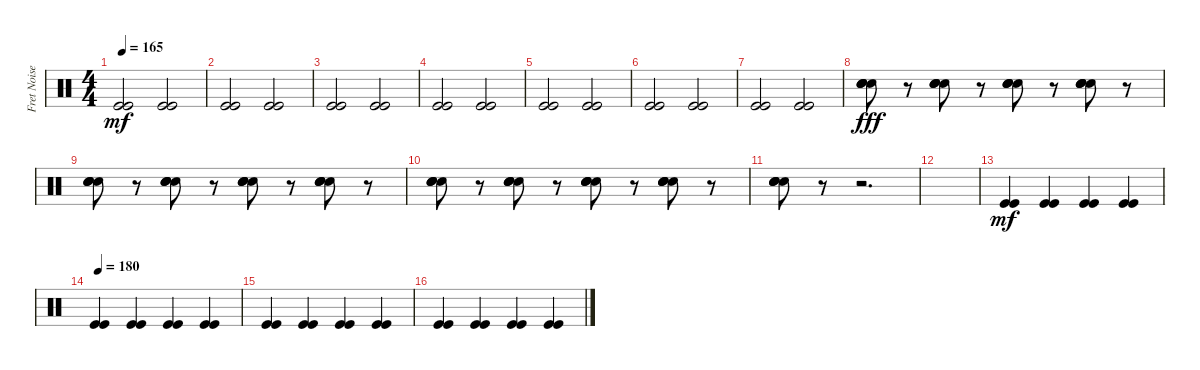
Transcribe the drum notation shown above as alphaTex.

\track ("Fret Noise / Percussion(corpus)" "Fret Noise") {instrument percussion}
\staff {score}
\articulation defaults
\ts (4 4)
\tempo 165
\clef neutral
\ks c
("Kick (hit)" "Kick (hit)").2{dy mf} ("Kick (hit)" "Kick (hit)").2 |
("Kick (hit)" "Kick (hit)").2 ("Kick (hit)" "Kick (hit)").2 |
("Kick (hit)" "Kick (hit)").2 ("Kick (hit)" "Kick (hit)").2 |
("Kick (hit)" "Kick (hit)").2 ("Kick (hit)" "Kick (hit)").2 |
("Kick (hit)" "Kick (hit)").2 ("Kick (hit)" "Kick (hit)").2 |
("Kick (hit)" "Kick (hit)").2 ("Kick (hit)" "Kick (hit)").2 |
("Kick (hit)" "Kick (hit)").2 ("Kick (hit)" "Kick (hit)").2 |
("Snare (hit) 2" "Snare (hit) 2" "Snare (hit) 2" "Snare (hit) 2").8{dy fff} r.8 ("Snare (hit) 2" "Snare (hit) 2" "Snare (hit) 2" "Snare (hit) 2").8 r.8 ("Snare (hit) 2" "Snare (hit) 2" "Snare (hit) 2" "Snare (hit) 2").8 r.8 ("Snare (hit) 2" "Snare (hit) 2" "Snare (hit) 2" "Snare (hit) 2").8 r.8 |
("Snare (hit) 2" "Snare (hit) 2" "Snare (hit) 2" "Snare (hit) 2").8 r.8 ("Snare (hit) 2" "Snare (hit) 2" "Snare (hit) 2" "Snare (hit) 2").8 r.8 ("Snare (hit) 2" "Snare (hit) 2" "Snare (hit) 2" "Snare (hit) 2").8 r.8 ("Snare (hit) 2" "Snare (hit) 2" "Snare (hit) 2" "Snare (hit) 2").8 r.8 |
("Snare (hit) 2" "Snare (hit) 2" "Snare (hit) 2" "Snare (hit) 2").8 r.8 ("Snare (hit) 2" "Snare (hit) 2" "Snare (hit) 2" "Snare (hit) 2").8 r.8 ("Snare (hit) 2" "Snare (hit) 2" "Snare (hit) 2" "Snare (hit) 2").8 r.8 ("Snare (hit) 2" "Snare (hit) 2" "Snare (hit) 2" "Snare (hit) 2").8 r.8 |
("Snare (hit) 2" "Snare (hit) 2" "Snare (hit) 2" "Snare (hit) 2").8 r.8 r.2{d} |
|
("Kick (hit)" "Kick (hit)").4{dy mf} ("Kick (hit)" "Kick (hit)").4 ("Kick (hit)" "Kick (hit)").4 ("Kick (hit)" "Kick (hit)").4 |
\tempo 180
("Kick (hit)" "Kick (hit)").4 ("Kick (hit)" "Kick (hit)").4 ("Kick (hit)" "Kick (hit)").4 ("Kick (hit)" "Kick (hit)").4 |
("Kick (hit)" "Kick (hit)").4 ("Kick (hit)" "Kick (hit)").4 ("Kick (hit)" "Kick (hit)").4 ("Kick (hit)" "Kick (hit)").4 |
("Kick (hit)" "Kick (hit)").4 ("Kick (hit)" "Kick (hit)").4 ("Kick (hit)" "Kick (hit)").4 ("Kick (hit)" "Kick (hit)").4
